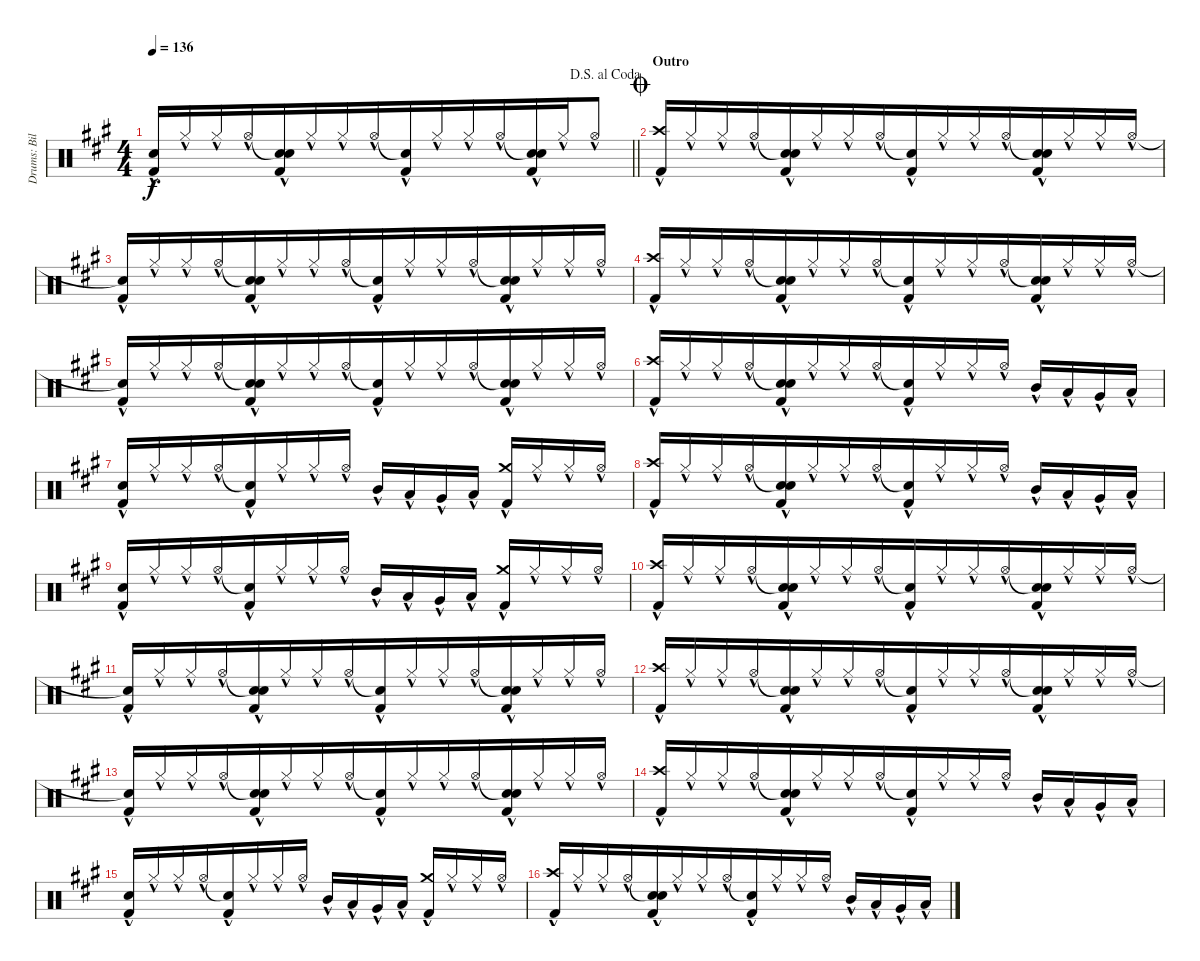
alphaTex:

\track ("Drums: Bill" "Drums: Bil") {instrument percussion}
\staff {score}
\articulation defaults
\ts (4 4)
\jump dalsegnoalcoda
\tempo 136
\clef neutral
\barLineRight lightlight
\ks a
("Snare (hit)"{t} "Kick (hit) 2"{hac}).16{dy f beam Up beam merge} "Hi-Hat (closed)"{hac}.16{beam Up beam merge} "Hi-Hat (closed)"{hac}.16{beam Up beam merge} "Hi-Hat (open)"{hac}.16{beam Up beam merge} ("Snare (hit)"{t} "Electric Snare (hit)"{hac} "Kick (hit) 2"{hac}).16{beam Up beam merge} "Hi-Hat (closed)"{hac}.16{beam Up beam merge} "Hi-Hat (closed)"{hac}.16{beam Up beam merge} "Hi-Hat (open)"{hac}.16{beam Up beam merge} ("Snare (hit)"{t} "Kick (hit) 2"{hac}).16{beam Up beam merge} "Hi-Hat (closed)"{hac}.16{beam Up beam merge} "Hi-Hat (closed)"{hac}.16{beam Up beam merge} "Hi-Hat (open)"{hac}.16{beam Up beam merge} ("Snare (hit)"{t} "Electric Snare (hit)" "Kick (hit) 2"{hac}).16{beam Up beam merge} "Hi-Hat (closed)"{hac}.16{beam Up beam merge} "Hi-Hat (open)"{hac}.8{beam Up} |
\section ("" "Outro")
\jump coda
("Crash high (hit)"{hac} "Kick (hit) 2"{hac}).16{beam Up beam merge} "Hi-Hat (closed)"{hac}.16{beam Up beam merge} "Hi-Hat (closed)"{hac}.16{beam Up beam merge} "Hi-Hat (open)"{hac}.16{beam Up beam merge} ("Snare (hit)"{t} "Electric Snare (hit)"{hac} "Kick (hit) 2"{hac}).16{beam Up beam merge} "Hi-Hat (closed)"{hac}.16{beam Up beam merge} "Hi-Hat (closed)"{hac}.16{beam Up beam merge} "Hi-Hat (open)"{hac}.16{beam Up beam merge} ("Snare (hit)"{t} "Kick (hit) 2"{hac}).16{beam Up beam merge} "Hi-Hat (closed)"{hac}.16{beam Up beam merge} "Hi-Hat (closed)"{hac}.16{beam Up beam merge} "Hi-Hat (open)"{hac}.16{beam Up beam merge} ("Snare (hit)"{t} "Electric Snare (hit)"{hac} "Kick (hit) 2"{hac}).16{beam Up beam merge} "Hi-Hat (closed)"{hac}.16{beam Up beam merge} "Hi-Hat (closed)"{hac}.16{beam Up beam merge} "Hi-Hat (open)"{hac}.16{beam Up} |
("Snare (hit)"{t} "Kick (hit) 2"{hac}).16{beam Up beam merge} "Hi-Hat (closed)"{hac}.16{beam Up beam merge} "Hi-Hat (closed)"{hac}.16{beam Up beam merge} "Hi-Hat (open)"{hac}.16{beam Up beam merge} ("Snare (hit)"{t} "Electric Snare (hit)"{hac} "Kick (hit) 2"{hac}).16{beam Up beam merge} "Hi-Hat (closed)"{hac}.16{beam Up beam merge} "Hi-Hat (closed)"{hac}.16{beam Up beam merge} "Hi-Hat (open)"{hac}.16{beam Up beam merge} ("Snare (hit)"{t} "Kick (hit) 2"{hac}).16{beam Up beam merge} "Hi-Hat (closed)"{hac}.16{beam Up beam merge} "Hi-Hat (closed)"{hac}.16{beam Up beam merge} "Hi-Hat (open)"{hac}.16{beam Up beam merge} ("Snare (hit)"{t} "Electric Snare (hit)" "Kick (hit) 2"{hac}).16{beam Up beam merge} "Hi-Hat (closed)"{hac}.16{beam Up beam merge} "Hi-Hat (closed)"{hac}.16{beam Up beam merge} "Hi-Hat (open)"{hac}.16{beam Up} |
("Crash high (hit)"{hac} "Kick (hit) 2"{hac}).16{beam Up beam merge} "Hi-Hat (closed)"{hac}.16{beam Up beam merge} "Hi-Hat (closed)"{hac}.16{beam Up beam merge} "Hi-Hat (open)"{hac}.16{beam Up beam merge} ("Snare (hit)"{t} "Electric Snare (hit)"{hac} "Kick (hit) 2"{hac}).16{beam Up beam merge} "Hi-Hat (closed)"{hac}.16{beam Up beam merge} "Hi-Hat (closed)"{hac}.16{beam Up beam merge} "Hi-Hat (open)"{hac}.16{beam Up beam merge} ("Snare (hit)"{t} "Kick (hit) 2"{hac}).16{beam Up beam merge} "Hi-Hat (closed)"{hac}.16{beam Up beam merge} "Hi-Hat (closed)"{hac}.16{beam Up beam merge} "Hi-Hat (open)"{hac}.16{beam Up beam merge} ("Snare (hit)"{t} "Electric Snare (hit)"{hac} "Kick (hit) 2"{hac}).16{beam Up beam merge} "Hi-Hat (closed)"{hac}.16{beam Up beam merge} "Hi-Hat (closed)"{hac}.16{beam Up beam merge} "Hi-Hat (open)"{hac}.16{beam Up} |
("Snare (hit)"{t} "Kick (hit) 2"{hac}).16{beam Up beam merge} "Hi-Hat (closed)"{hac}.16{beam Up beam merge} "Hi-Hat (closed)"{hac}.16{beam Up beam merge} "Hi-Hat (open)"{hac}.16{beam Up beam merge} ("Snare (hit)"{t} "Electric Snare (hit)"{hac} "Kick (hit) 2"{hac}).16{beam Up beam merge} "Hi-Hat (closed)"{hac}.16{beam Up beam merge} "Hi-Hat (closed)"{hac}.16{beam Up beam merge} "Hi-Hat (open)"{hac}.16{beam Up beam merge} ("Snare (hit)"{t} "Kick (hit) 2"{hac}).16{beam Up beam merge} "Hi-Hat (closed)"{hac}.16{beam Up beam merge} "Hi-Hat (closed)"{hac}.16{beam Up beam merge} "Hi-Hat (open)"{hac}.16{beam Up beam merge} ("Snare (hit)"{t} "Electric Snare (hit)" "Kick (hit) 2"{hac}).16{beam Up beam merge} "Hi-Hat (closed)"{hac}.16{beam Up beam merge} "Hi-Hat (closed)"{hac}.16{beam Up beam merge} "Hi-Hat (open)"{hac}.16{beam Up} |
("Crash high (hit)"{hac} "Kick (hit) 2"{hac}).16{beam Up beam merge} "Hi-Hat (closed)"{hac}.16{beam Up beam merge} "Hi-Hat (closed)"{hac}.16{beam Up beam merge} "Hi-Hat (open)"{hac}.16{beam Up beam merge} ("Snare (hit)"{t} "Electric Snare (hit)"{hac} "Kick (hit) 2"{hac}).16{beam Up beam merge} "Hi-Hat (closed)"{hac}.16{beam Up beam merge} "Hi-Hat (closed)"{hac}.16{beam Up beam merge} "Hi-Hat (open)"{hac}.16{beam Up beam merge} ("Snare (hit)"{t} "Kick (hit) 2"{hac}).16{beam Up beam merge} "Hi-Hat (closed)"{hac}.16{beam Up beam merge} "Hi-Hat (closed)"{hac}.16{beam Up beam merge} "Hi-Hat (open)"{hac}.16{beam Up} "Mid Tom (hit)"{hac}.16 "Low Tom (hit)"{hac}.16 "Very Low Tom (hit)"{hac}.16 "Low Floor Tom (hit)"{hac}.16 |
("Electric Snare (hit)"{hac} "Kick (hit) 2"{hac}).16{beam Up beam merge} "Hi-Hat (closed)"{hac}.16{beam Up beam merge} "Hi-Hat (closed)"{hac}.16{beam Up beam merge} "Hi-Hat (open)"{hac}.16{beam Up beam merge} ("Snare (hit)"{t} "Kick (hit) 2"{hac}).16{beam Up beam merge} "Hi-Hat (closed)"{hac}.16{beam Up beam merge} "Hi-Hat (closed)"{hac}.16{beam Up beam merge} "Hi-Hat (open)"{hac}.16{beam Up} "Mid Tom (hit)"{hac}.16 "Low Tom (hit)"{hac}.16 "Very Low Tom (hit)"{hac}.16 "Low Floor Tom (hit)"{hac}.16 ("Crash medium (hit)"{hac} "Kick (hit) 2"{hac}).16{beam Up beam merge} "Hi-Hat (closed)"{hac}.16{beam Up beam merge} "Hi-Hat (closed)"{hac}.16{beam Up beam merge} "Hi-Hat (open)"{hac}.16{beam Up} |
("Crash high (hit)"{hac} "Kick (hit) 2"{hac}).16{beam Up beam merge} "Hi-Hat (closed)"{hac}.16{beam Up beam merge} "Hi-Hat (closed)"{hac}.16{beam Up beam merge} "Hi-Hat (open)"{hac}.16{beam Up beam merge} ("Snare (hit)"{t} "Electric Snare (hit)"{hac} "Kick (hit) 2"{hac}).16{beam Up beam merge} "Hi-Hat (closed)"{hac}.16{beam Up beam merge} "Hi-Hat (closed)"{hac}.16{beam Up beam merge} "Hi-Hat (open)"{hac}.16{beam Up beam merge} ("Snare (hit)"{t} "Kick (hit) 2"{hac}).16{beam Up beam merge} "Hi-Hat (closed)"{hac}.16{beam Up beam merge} "Hi-Hat (closed)"{hac}.16{beam Up beam merge} "Hi-Hat (open)"{hac}.16{beam Up} "Mid Tom (hit)"{hac}.16 "Low Tom (hit)"{hac}.16 "Very Low Tom (hit)"{hac}.16 "Low Floor Tom (hit)"{hac}.16 |
("Electric Snare (hit)"{hac} "Kick (hit) 2"{hac}).16{beam Up beam merge} "Hi-Hat (closed)"{hac}.16{beam Up beam merge} "Hi-Hat (closed)"{hac}.16{beam Up beam merge} "Hi-Hat (open)"{hac}.16{beam Up beam merge} ("Snare (hit)"{t} "Kick (hit) 2"{hac}).16{beam Up beam merge} "Hi-Hat (closed)"{hac}.16{beam Up beam merge} "Hi-Hat (closed)"{hac}.16{beam Up beam merge} "Hi-Hat (open)"{hac}.16{beam Up} "Mid Tom (hit)"{hac}.16 "Low Tom (hit)"{hac}.16 "Very Low Tom (hit)"{hac}.16 "Low Floor Tom (hit)"{hac}.16 ("Crash medium (hit)"{hac} "Kick (hit) 2"{hac}).16{beam Up beam merge} "Hi-Hat (closed)"{hac}.16{beam Up beam merge} "Hi-Hat (closed)"{hac}.16{beam Up beam merge} "Hi-Hat (open)"{hac}.16{beam Up} |
("Crash high (hit)"{hac} "Kick (hit) 2"{hac}).16{beam Up beam merge} "Hi-Hat (closed)"{hac}.16{beam Up beam merge} "Hi-Hat (closed)"{hac}.16{beam Up beam merge} "Hi-Hat (open)"{hac}.16{beam Up beam merge} ("Snare (hit)"{t} "Electric Snare (hit)"{hac} "Kick (hit) 2"{hac}).16{beam Up beam merge} "Hi-Hat (closed)"{hac}.16{beam Up beam merge} "Hi-Hat (closed)"{hac}.16{beam Up beam merge} "Hi-Hat (open)"{hac}.16{beam Up beam merge} ("Snare (hit)"{t} "Kick (hit) 2"{hac}).16{beam Up beam merge} "Hi-Hat (closed)"{hac}.16{beam Up beam merge} "Hi-Hat (closed)"{hac}.16{beam Up beam merge} "Hi-Hat (open)"{hac}.16{beam Up beam merge} ("Snare (hit)"{t} "Electric Snare (hit)"{hac} "Kick (hit) 2"{hac}).16{beam Up beam merge} "Hi-Hat (closed)"{hac}.16{beam Up beam merge} "Hi-Hat (closed)"{hac}.16{beam Up beam merge} "Hi-Hat (open)"{hac}.16{beam Up} |
("Snare (hit)"{t} "Kick (hit) 2"{hac}).16{beam Up beam merge} "Hi-Hat (closed)"{hac}.16{beam Up beam merge} "Hi-Hat (closed)"{hac}.16{beam Up beam merge} "Hi-Hat (open)"{hac}.16{beam Up beam merge} ("Snare (hit)"{t} "Electric Snare (hit)"{hac} "Kick (hit) 2"{hac}).16{beam Up beam merge} "Hi-Hat (closed)"{hac}.16{beam Up beam merge} "Hi-Hat (closed)"{hac}.16{beam Up beam merge} "Hi-Hat (open)"{hac}.16{beam Up beam merge} ("Snare (hit)"{t} "Kick (hit) 2"{hac}).16{beam Up beam merge} "Hi-Hat (closed)"{hac}.16{beam Up beam merge} "Hi-Hat (closed)"{hac}.16{beam Up beam merge} "Hi-Hat (open)"{hac}.16{beam Up beam merge} ("Snare (hit)"{t} "Electric Snare (hit)" "Kick (hit) 2"{hac}).16{beam Up beam merge} "Hi-Hat (closed)"{hac}.16{beam Up beam merge} "Hi-Hat (closed)"{hac}.16{beam Up beam merge} "Hi-Hat (open)"{hac}.16{beam Up} |
("Crash high (hit)"{hac} "Kick (hit) 2"{hac}).16{beam Up beam merge} "Hi-Hat (closed)"{hac}.16{beam Up beam merge} "Hi-Hat (closed)"{hac}.16{beam Up beam merge} "Hi-Hat (open)"{hac}.16{beam Up beam merge} ("Snare (hit)"{t} "Electric Snare (hit)"{hac} "Kick (hit) 2"{hac}).16{beam Up beam merge} "Hi-Hat (closed)"{hac}.16{beam Up beam merge} "Hi-Hat (closed)"{hac}.16{beam Up beam merge} "Hi-Hat (open)"{hac}.16{beam Up beam merge} ("Snare (hit)"{t} "Kick (hit) 2"{hac}).16{beam Up beam merge} "Hi-Hat (closed)"{hac}.16{beam Up beam merge} "Hi-Hat (closed)"{hac}.16{beam Up beam merge} "Hi-Hat (open)"{hac}.16{beam Up beam merge} ("Snare (hit)"{t} "Electric Snare (hit)"{hac} "Kick (hit) 2"{hac}).16{beam Up beam merge} "Hi-Hat (closed)"{hac}.16{beam Up beam merge} "Hi-Hat (closed)"{hac}.16{beam Up beam merge} "Hi-Hat (open)"{hac}.16{beam Up} |
("Snare (hit)"{t} "Kick (hit) 2"{hac}).16{beam Up beam merge} "Hi-Hat (closed)"{hac}.16{beam Up beam merge} "Hi-Hat (closed)"{hac}.16{beam Up beam merge} "Hi-Hat (open)"{hac}.16{beam Up beam merge} ("Snare (hit)"{t} "Electric Snare (hit)"{hac} "Kick (hit) 2"{hac}).16{beam Up beam merge} "Hi-Hat (closed)"{hac}.16{beam Up beam merge} "Hi-Hat (closed)"{hac}.16{beam Up beam merge} "Hi-Hat (open)"{hac}.16{beam Up beam merge} ("Snare (hit)"{t} "Kick (hit) 2"{hac}).16{beam Up beam merge} "Hi-Hat (closed)"{hac}.16{beam Up beam merge} "Hi-Hat (closed)"{hac}.16{beam Up beam merge} "Hi-Hat (open)"{hac}.16{beam Up beam merge} ("Snare (hit)"{t} "Electric Snare (hit)" "Kick (hit) 2"{hac}).16{beam Up beam merge} "Hi-Hat (closed)"{hac}.16{beam Up beam merge} "Hi-Hat (closed)"{hac}.16{beam Up beam merge} "Hi-Hat (open)"{hac}.16{beam Up} |
("Crash high (hit)"{hac} "Kick (hit) 2"{hac}).16{beam Up beam merge} "Hi-Hat (closed)"{hac}.16{beam Up beam merge} "Hi-Hat (closed)"{hac}.16{beam Up beam merge} "Hi-Hat (open)"{hac}.16{beam Up beam merge} ("Snare (hit)"{t} "Electric Snare (hit)"{hac} "Kick (hit) 2"{hac}).16{beam Up beam merge} "Hi-Hat (closed)"{hac}.16{beam Up beam merge} "Hi-Hat (closed)"{hac}.16{beam Up beam merge} "Hi-Hat (open)"{hac}.16{beam Up beam merge} ("Snare (hit)"{t} "Kick (hit) 2"{hac}).16{beam Up beam merge} "Hi-Hat (closed)"{hac}.16{beam Up beam merge} "Hi-Hat (closed)"{hac}.16{beam Up beam merge} "Hi-Hat (open)"{hac}.16{beam Up} "Mid Tom (hit)"{hac}.16 "Low Tom (hit)"{hac}.16 "Very Low Tom (hit)"{hac}.16 "Low Floor Tom (hit)"{hac}.16 |
("Electric Snare (hit)"{hac} "Kick (hit) 2"{hac}).16{beam Up beam merge} "Hi-Hat (closed)"{hac}.16{beam Up beam merge} "Hi-Hat (closed)"{hac}.16{beam Up beam merge} "Hi-Hat (open)"{hac}.16{beam Up beam merge} ("Snare (hit)"{t} "Kick (hit) 2"{hac}).16{beam Up beam merge} "Hi-Hat (closed)"{hac}.16{beam Up beam merge} "Hi-Hat (closed)"{hac}.16{beam Up beam merge} "Hi-Hat (open)"{hac}.16{beam Up} "Mid Tom (hit)"{hac}.16 "Low Tom (hit)"{hac}.16 "Very Low Tom (hit)"{hac}.16 "Low Floor Tom (hit)"{hac}.16 ("Crash medium (hit)"{hac} "Kick (hit) 2"{hac}).16{beam Up beam merge} "Hi-Hat (closed)"{hac}.16{beam Up beam merge} "Hi-Hat (closed)"{hac}.16{beam Up beam merge} "Hi-Hat (open)"{hac}.16{beam Up} |
("Crash high (hit)"{hac} "Kick (hit) 2"{hac}).16{beam Up beam merge} "Hi-Hat (closed)"{hac}.16{beam Up beam merge} "Hi-Hat (closed)"{hac}.16{beam Up beam merge} "Hi-Hat (open)"{hac}.16{beam Up beam merge} ("Snare (hit)"{t} "Electric Snare (hit)"{hac} "Kick (hit) 2"{hac}).16{beam Up beam merge} "Hi-Hat (closed)"{hac}.16{beam Up beam merge} "Hi-Hat (closed)"{hac}.16{beam Up beam merge} "Hi-Hat (open)"{hac}.16{beam Up beam merge} ("Snare (hit)"{t} "Kick (hit) 2"{hac}).16{beam Up beam merge} "Hi-Hat (closed)"{hac}.16{beam Up beam merge} "Hi-Hat (closed)"{hac}.16{beam Up beam merge} "Hi-Hat (open)"{hac}.16{beam Up} "Mid Tom (hit)"{hac}.16 "Low Tom (hit)"{hac}.16 "Very Low Tom (hit)"{hac}.16 "Low Floor Tom (hit)"{hac}.16
